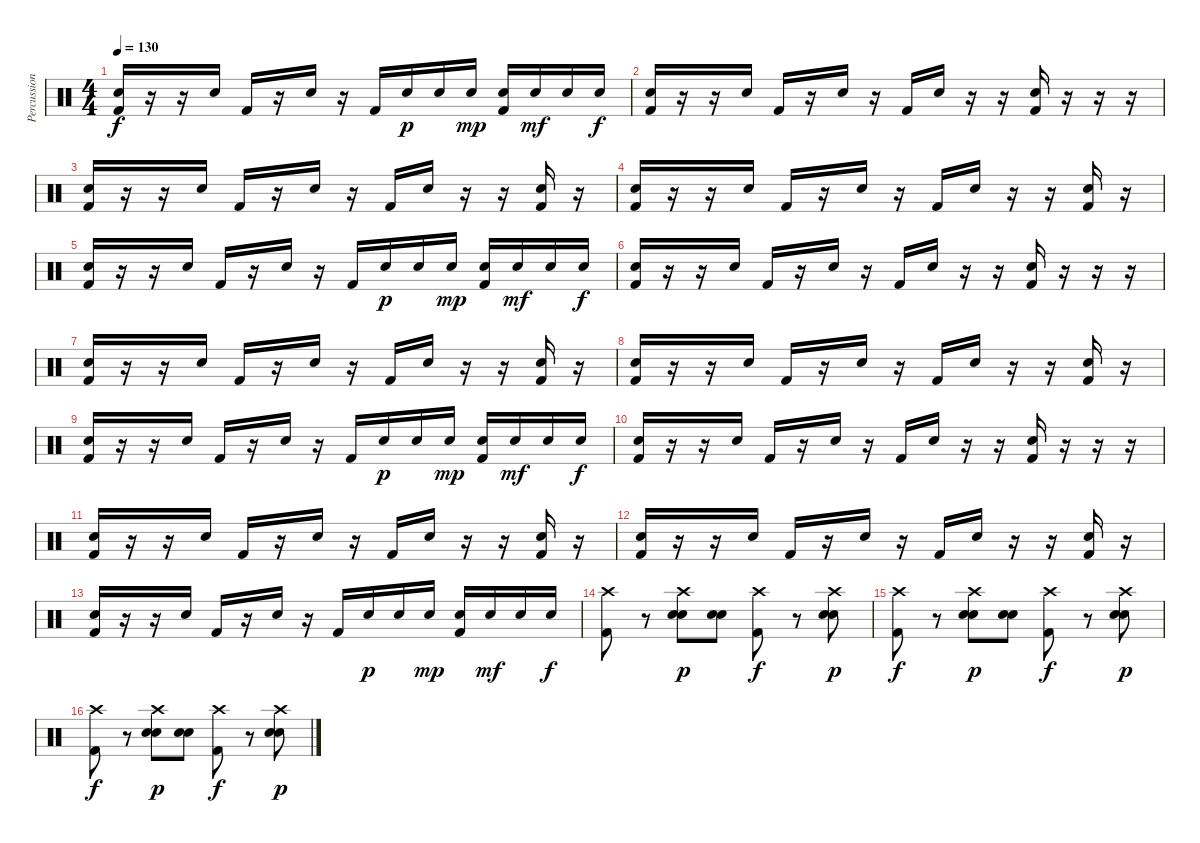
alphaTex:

\track ("Percussion" "Percussion") {instrument percussion}
\staff {score}
\articulation defaults
\ts (4 4)
\tempo 130
\clef neutral
\ks c
("Electric Snare (hit)" "Kick (hit) 2").16{dy f} r.16 r.16 "Electric Snare (hit)".16 "Kick (hit) 2".16 r.16 "Electric Snare (hit)".16 r.16 "Kick (hit) 2".16 "Electric Snare (hit)".16{dy p} "Electric Snare (hit)".16 "Electric Snare (hit)".16{dy mp} ("Electric Snare (hit)" "Kick (hit) 2").16 "Electric Snare (hit)".16{dy mf} "Electric Snare (hit)".16 "Electric Snare (hit)".16{dy f} |
("Electric Snare (hit)" "Kick (hit) 2").16 r.16 r.16 "Electric Snare (hit)".16 "Kick (hit) 2".16 r.16 "Electric Snare (hit)".16 r.16 "Kick (hit) 2".16 "Electric Snare (hit)".16 r.16 r.16 ("Electric Snare (hit)" "Kick (hit) 2").16 r.16 r.16 r.16 |
("Electric Snare (hit)" "Kick (hit) 2").16 r.16 r.16 "Electric Snare (hit)".16 "Kick (hit) 2".16 r.16 "Electric Snare (hit)".16 r.16 "Kick (hit) 2".16 "Electric Snare (hit)".16 r.16 r.16 ("Electric Snare (hit)" "Kick (hit) 2").16 r.16 |
("Electric Snare (hit)" "Kick (hit) 2").16 r.16 r.16 "Electric Snare (hit)".16 "Kick (hit) 2".16 r.16 "Electric Snare (hit)".16 r.16 "Kick (hit) 2".16 "Electric Snare (hit)".16 r.16 r.16 ("Electric Snare (hit)" "Kick (hit) 2").16 r.16 |
("Electric Snare (hit)" "Kick (hit) 2").16 r.16 r.16 "Electric Snare (hit)".16 "Kick (hit) 2".16 r.16 "Electric Snare (hit)".16 r.16 "Kick (hit) 2".16 "Electric Snare (hit)".16{dy p} "Electric Snare (hit)".16 "Electric Snare (hit)".16{dy mp} ("Electric Snare (hit)" "Kick (hit) 2").16 "Electric Snare (hit)".16{dy mf} "Electric Snare (hit)".16 "Electric Snare (hit)".16{dy f} |
("Electric Snare (hit)" "Kick (hit) 2").16 r.16 r.16 "Electric Snare (hit)".16 "Kick (hit) 2".16 r.16 "Electric Snare (hit)".16 r.16 "Kick (hit) 2".16 "Electric Snare (hit)".16 r.16 r.16 ("Electric Snare (hit)" "Kick (hit) 2").16 r.16 r.16 r.16 |
("Electric Snare (hit)" "Kick (hit) 2").16 r.16 r.16 "Electric Snare (hit)".16 "Kick (hit) 2".16 r.16 "Electric Snare (hit)".16 r.16 "Kick (hit) 2".16 "Electric Snare (hit)".16 r.16 r.16 ("Electric Snare (hit)" "Kick (hit) 2").16 r.16 |
("Electric Snare (hit)" "Kick (hit) 2").16 r.16 r.16 "Electric Snare (hit)".16 "Kick (hit) 2".16 r.16 "Electric Snare (hit)".16 r.16 "Kick (hit) 2".16 "Electric Snare (hit)".16 r.16 r.16 ("Electric Snare (hit)" "Kick (hit) 2").16 r.16 |
("Electric Snare (hit)" "Kick (hit) 2").16 r.16 r.16 "Electric Snare (hit)".16 "Kick (hit) 2".16 r.16 "Electric Snare (hit)".16 r.16 "Kick (hit) 2".16 "Electric Snare (hit)".16{dy p} "Electric Snare (hit)".16 "Electric Snare (hit)".16{dy mp} ("Electric Snare (hit)" "Kick (hit) 2").16 "Electric Snare (hit)".16{dy mf} "Electric Snare (hit)".16 "Electric Snare (hit)".16{dy f} |
("Electric Snare (hit)" "Kick (hit) 2").16 r.16 r.16 "Electric Snare (hit)".16 "Kick (hit) 2".16 r.16 "Electric Snare (hit)".16 r.16 "Kick (hit) 2".16 "Electric Snare (hit)".16 r.16 r.16 ("Electric Snare (hit)" "Kick (hit) 2").16 r.16 r.16 r.16 |
("Electric Snare (hit)" "Kick (hit) 2").16 r.16 r.16 "Electric Snare (hit)".16 "Kick (hit) 2".16 r.16 "Electric Snare (hit)".16 r.16 "Kick (hit) 2".16 "Electric Snare (hit)".16 r.16 r.16 ("Electric Snare (hit)" "Kick (hit) 2").16 r.16 |
("Electric Snare (hit)" "Kick (hit) 2").16 r.16 r.16 "Electric Snare (hit)".16 "Kick (hit) 2".16 r.16 "Electric Snare (hit)".16 r.16 "Kick (hit) 2".16 "Electric Snare (hit)".16 r.16 r.16 ("Electric Snare (hit)" "Kick (hit) 2").16 r.16 |
("Electric Snare (hit)" "Kick (hit) 2").16 r.16 r.16 "Electric Snare (hit)".16 "Kick (hit) 2".16 r.16 "Electric Snare (hit)".16 r.16 "Kick (hit) 2".16 "Electric Snare (hit)".16{dy p} "Electric Snare (hit)".16 "Electric Snare (hit)".16{dy mp} ("Electric Snare (hit)" "Kick (hit) 2").16 "Electric Snare (hit)".16{dy mf} "Electric Snare (hit)".16 "Electric Snare (hit)".16{dy f} |
("Kick (hit) 2" "Crash high (hit)").8 r.8 ("Electric Snare (hit)" "Crash high (hit)" "Snare (hit) 2").8{dy p} ("Electric Snare (hit)" "Snare (hit) 2").8 ("Kick (hit) 2" "Crash high (hit)").8{dy f} r.8 ("Electric Snare (hit)" "Crash high (hit)" "Snare (hit) 2").8{dy p} |
("Kick (hit) 2" "Crash high (hit)").8{dy f} r.8 ("Electric Snare (hit)" "Crash high (hit)" "Snare (hit) 2").8{dy p} ("Electric Snare (hit)" "Snare (hit) 2").8 ("Kick (hit) 2" "Crash high (hit)").8{dy f} r.8 ("Electric Snare (hit)" "Crash high (hit)" "Snare (hit) 2").8{dy p} |
("Kick (hit) 2" "Crash high (hit)").8{dy f} r.8 ("Electric Snare (hit)" "Crash high (hit)" "Snare (hit) 2").8{dy p} ("Electric Snare (hit)" "Snare (hit) 2").8 ("Kick (hit) 2" "Crash high (hit)").8{dy f} r.8 ("Electric Snare (hit)" "Crash high (hit)" "Snare (hit) 2").8{dy p}
